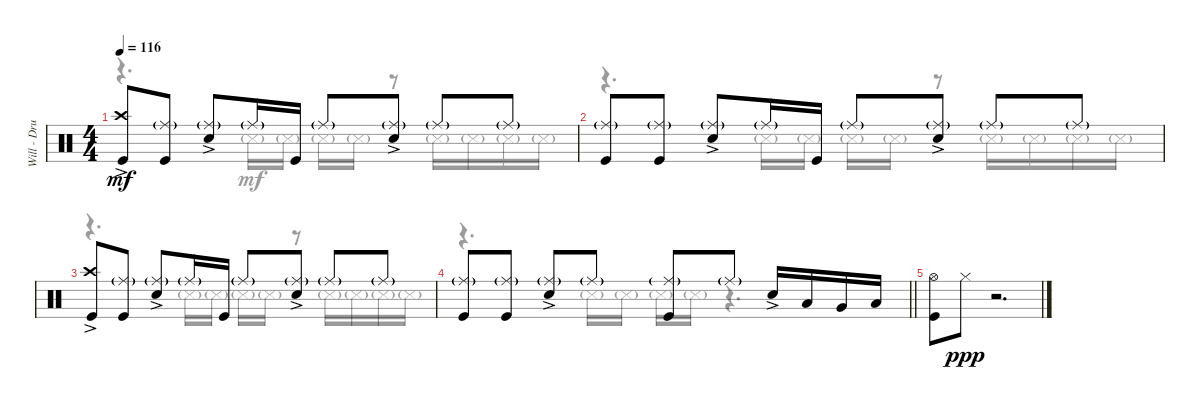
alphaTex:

\track ("Will - Drumkit" "Will - Dru") {instrument percussion}
\staff {score}
\articulation defaults
\voice
\ts (4 4)
\tempo 116
\clef neutral
\ks c
("Kick (hit)" "Crash high (hit)"{ac}).8{dy mf} ("Kick (hit)" "Ride (middle)"{g}).8 ("Snare (hit) 2"{ac} "Ride (middle)"{g}).8 "Ride (middle)"{g}.16 "Kick (hit)".16 "Ride (middle)"{g}.8 ("Ride (middle)"{g} "Snare (hit) 2"{ac}).8 "Ride (middle)"{g}.8 "Ride (middle)"{g}.8 |
("Kick (hit)" "Ride (middle)"{g}).8 ("Kick (hit)" "Ride (middle)"{g}).8 ("Snare (hit) 2"{ac} "Ride (middle)"{g}).8 "Ride (middle)"{g}.16 "Kick (hit)".16 "Ride (middle)"{g}.8 ("Ride (middle)"{g} "Snare (hit) 2"{ac}).8 "Ride (middle)"{g}.8 "Ride (middle)"{g}.8 |
("Kick (hit)" "Crash high (hit)"{ac}).8 ("Kick (hit)" "Ride (middle)"{g}).8 ("Snare (hit) 2"{ac} "Ride (middle)"{g}).8 "Ride (middle)"{g}.16 "Kick (hit)".16 "Ride (middle)"{g}.8 ("Ride (middle)"{g} "Snare (hit) 2"{ac}).8 "Ride (middle)"{g}.8 "Ride (middle)"{g}.8 |
\barLineRight lightlight
("Kick (hit)" "Ride (middle)"{g}).8 ("Kick (hit)" "Ride (middle)"{g}).8 ("Snare (hit) 2"{ac} "Ride (middle)"{g}).8 "Ride (middle)"{g}.8 ("Kick (hit)" "Ride (middle)"{g}).8 "Ride (middle)"{g}.8 "Snare (hit) 2"{ac}.16 "Low Tom (hit)".16 "Very Low Tom (hit)".16 "Low Floor Tom (hit)".16 |
("Kick (hit)" "Hi-Hat (open)").8 "Hi-Hat (closed)".8{dy ppp} r.2{d} |
\voice
\clef neutral
\ottava regular
\simile none
\ks c
r.4{d dy mf} "Snare (side stick) 3"{g}.16 "Snare (side stick) 3"{g}.16 "Snare (side stick) 3"{g}.16 "Snare (side stick) 3"{g}.16 r.8 "Snare (side stick) 3"{g}.16 "Snare (side stick) 3"{g}.16 "Snare (side stick) 3"{g}.16 "Snare (side stick) 3"{g}.16 |
r.4{d} "Snare (side stick) 3"{g}.16 "Snare (side stick) 3"{g}.16 "Snare (side stick) 3"{g}.16 "Snare (side stick) 3"{g}.16 r.8 "Snare (side stick) 3"{g}.16 "Snare (side stick) 3"{g}.16 "Snare (side stick) 3"{g}.16 "Snare (side stick) 3"{g}.16 |
r.4{d} "Snare (side stick) 3"{g}.16 "Snare (side stick) 3"{g}.16 "Snare (side stick) 3"{g}.16 "Snare (side stick) 3"{g}.16 r.8 "Snare (side stick) 3"{g}.16 "Snare (side stick) 3"{g}.16 "Snare (side stick) 3"{g}.16 "Snare (side stick) 3"{g}.16 |
\barLineRight lightlight
r.4{d} "Snare (side stick) 3"{g}.16 "Snare (side stick) 3"{g}.16 "Snare (side stick) 3"{g}.16 "Snare (side stick) 3"{g}.16 r.4{d} |
|
